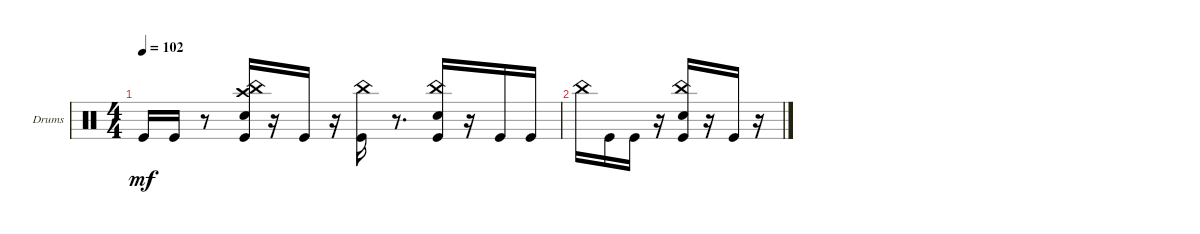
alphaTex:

\defaultSystemsLayout 4
\bracketExtendMode groupsimilarinstruments
\firstSystemTrackNameOrientation horizontal
\otherSystemsTrackNameOrientation horizontal
\track ("Drumkit" "Drums") {instrument percussion}
\staff {score}
\articulation defaults
\ts (4 4)
\tempo 102
\clef neutral
\scale
0.333333
\ks c "Kick (hit)".16{dy mf} "Kick (hit)".16
r.8 ("China (hit)" "Crash high (hit)" "Snare (hit) 2" "Kick (hit)").16 r.16 "Kick (hit)".16 r.16 ("China (hit)" "Kick (hit)").16 r.8{d} ("China (hit)" "Snare (hit) 2" "Kick (hit)").16 r.16 "Kick (hit)".16 "Kick (hit)".16 |
\scale
0.333333 "China (hit)".16 "Kick (hit)".16 "Kick (hit)".16 r.16 ("China (hit)" "Snare (hit) 2" "Kick (hit)").16 r.16 "Kick (hit)".16 r.16 |
\scale
0.333333 |
\scale
0.333333 |
\scale
0.333333 |
\scale
0.333333 |
\scale
0.333333 |
\scale
0.333333
